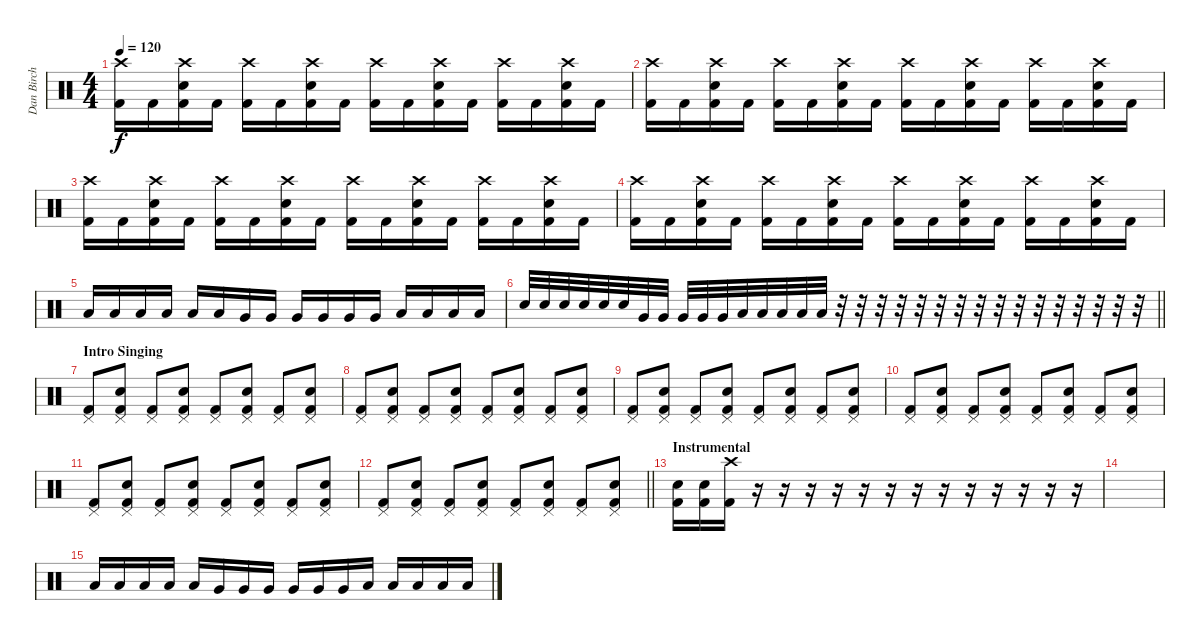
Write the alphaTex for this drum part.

\track ("Dan Birch" "Dan Birch") {instrument percussion}
\staff {score}
\articulation defaults
\ts (4 4)
\tempo 120
\clef neutral
\ks c
("Crash high (hit)" "Kick (hit) 2").16{dy f} "Kick (hit) 2".16 ("Crash high (hit)" "Kick (hit) 2" "Snare (hit) 2").16 "Kick (hit) 2".16 ("Crash high (hit)" "Kick (hit) 2").16 "Kick (hit) 2".16 ("Crash high (hit)" "Kick (hit) 2" "Snare (hit) 2").16 "Kick (hit) 2".16 ("Crash high (hit)" "Kick (hit) 2").16 "Kick (hit) 2".16 ("Crash high (hit)" "Kick (hit) 2" "Snare (hit) 2").16 "Kick (hit) 2".16 ("Crash high (hit)" "Kick (hit) 2").16 "Kick (hit) 2".16 ("Crash high (hit)" "Kick (hit) 2" "Snare (hit) 2").16 "Kick (hit) 2".16 |
("Crash high (hit)" "Kick (hit) 2").16 "Kick (hit) 2".16 ("Crash high (hit)" "Kick (hit) 2" "Snare (hit) 2").16 "Kick (hit) 2".16 ("Crash high (hit)" "Kick (hit) 2").16 "Kick (hit) 2".16 ("Crash high (hit)" "Kick (hit) 2" "Snare (hit) 2").16 "Kick (hit) 2".16 ("Crash high (hit)" "Kick (hit) 2").16 "Kick (hit) 2".16 ("Crash high (hit)" "Kick (hit) 2" "Snare (hit) 2").16 "Kick (hit) 2".16 ("Crash high (hit)" "Kick (hit) 2").16 "Kick (hit) 2".16 ("Crash high (hit)" "Kick (hit) 2" "Snare (hit) 2").16 "Kick (hit) 2".16 |
("Crash high (hit)" "Kick (hit) 2").16 "Kick (hit) 2".16 ("Crash high (hit)" "Kick (hit) 2" "Snare (hit) 2").16 "Kick (hit) 2".16 ("Crash high (hit)" "Kick (hit) 2").16 "Kick (hit) 2".16 ("Crash high (hit)" "Kick (hit) 2" "Snare (hit) 2").16 "Kick (hit) 2".16 ("Crash high (hit)" "Kick (hit) 2").16 "Kick (hit) 2".16 ("Crash high (hit)" "Kick (hit) 2" "Snare (hit) 2").16 "Kick (hit) 2".16 ("Crash high (hit)" "Kick (hit) 2").16 "Kick (hit) 2".16 ("Crash high (hit)" "Kick (hit) 2" "Snare (hit) 2").16 "Kick (hit) 2".16 |
("Crash high (hit)" "Kick (hit) 2").16 "Kick (hit) 2".16 ("Crash high (hit)" "Kick (hit) 2" "Snare (hit) 2").16 "Kick (hit) 2".16 ("Crash high (hit)" "Kick (hit) 2").16 "Kick (hit) 2".16 ("Crash high (hit)" "Kick (hit) 2" "Snare (hit) 2").16 "Kick (hit) 2".16 ("Crash high (hit)" "Kick (hit) 2").16 "Kick (hit) 2".16 ("Crash high (hit)" "Kick (hit) 2" "Snare (hit) 2").16 "Kick (hit) 2".16 ("Crash high (hit)" "Kick (hit) 2").16 "Kick (hit) 2".16 ("Crash high (hit)" "Kick (hit) 2" "Snare (hit) 2").16 "Kick (hit) 2".16 |
"Low Tom (hit)".16 "Low Tom (hit)".16 "Low Tom (hit)".16 "Low Tom (hit)".16 "Low Tom (hit)".16 "Low Tom (hit)".16 "Very Low Tom (hit)".16 "Very Low Tom (hit)".16 "Very Low Tom (hit)".16 "Very Low Tom (hit)".16 "Very Low Tom (hit)".16 "Very Low Tom (hit)".16 "Low Floor Tom (hit)".16 "Low Floor Tom (hit)".16 "Low Floor Tom (hit)".16 "Low Floor Tom (hit)".16 |
\barLineRight lightlight "Snare (hit) 2".32 "Snare (hit) 2".32 "Snare (hit) 2".32 "Snare (hit) 2".32 "Snare (hit) 2".32 "Snare (hit) 2".32 "Very Low Tom (hit)".32 "Very Low Tom (hit)".32 "Very Low Tom (hit)".32 "Very Low Tom (hit)".32 "Very Low Tom (hit)".32 "Low Tom (hit)".32 "Low Tom (hit)".32 "Low Tom (hit)".32 "Low Tom (hit)".32 "Low Tom (hit)".32
r.32 r.32 r.32 r.32 r.32 r.32 r.32 r.32 r.32 r.32 r.32 r.32 r.32 r.32 r.32 r.32 |
\section ("" "Intro Singing")
("Pedal Hi-Hat (hit)" "Kick (hit) 2").8 ("Pedal Hi-Hat (hit)" "Snare (hit) 2" "Kick (hit) 2").8 ("Pedal Hi-Hat (hit)" "Kick (hit) 2").8 ("Pedal Hi-Hat (hit)" "Snare (hit) 2" "Kick (hit) 2").8 ("Pedal Hi-Hat (hit)" "Kick (hit) 2").8 ("Pedal Hi-Hat (hit)" "Snare (hit) 2" "Kick (hit) 2").8 ("Pedal Hi-Hat (hit)" "Kick (hit) 2").8 ("Pedal Hi-Hat (hit)" "Snare (hit) 2" "Kick (hit) 2").8 |
("Pedal Hi-Hat (hit)" "Kick (hit) 2").8 ("Pedal Hi-Hat (hit)" "Snare (hit) 2" "Kick (hit) 2").8 ("Pedal Hi-Hat (hit)" "Kick (hit) 2").8 ("Pedal Hi-Hat (hit)" "Snare (hit) 2" "Kick (hit) 2").8 ("Pedal Hi-Hat (hit)" "Kick (hit) 2").8 ("Pedal Hi-Hat (hit)" "Snare (hit) 2" "Kick (hit) 2").8 ("Pedal Hi-Hat (hit)" "Kick (hit) 2").8 ("Pedal Hi-Hat (hit)" "Snare (hit) 2" "Kick (hit) 2").8 |
("Pedal Hi-Hat (hit)" "Kick (hit) 2").8 ("Pedal Hi-Hat (hit)" "Snare (hit) 2" "Kick (hit) 2").8 ("Pedal Hi-Hat (hit)" "Kick (hit) 2").8 ("Pedal Hi-Hat (hit)" "Snare (hit) 2" "Kick (hit) 2").8 ("Pedal Hi-Hat (hit)" "Kick (hit) 2").8 ("Pedal Hi-Hat (hit)" "Snare (hit) 2" "Kick (hit) 2").8 ("Pedal Hi-Hat (hit)" "Kick (hit) 2").8 ("Pedal Hi-Hat (hit)" "Snare (hit) 2" "Kick (hit) 2").8 |
("Pedal Hi-Hat (hit)" "Kick (hit) 2").8 ("Pedal Hi-Hat (hit)" "Snare (hit) 2" "Kick (hit) 2").8 ("Pedal Hi-Hat (hit)" "Kick (hit) 2").8 ("Pedal Hi-Hat (hit)" "Snare (hit) 2" "Kick (hit) 2").8 ("Pedal Hi-Hat (hit)" "Kick (hit) 2").8 ("Pedal Hi-Hat (hit)" "Snare (hit) 2" "Kick (hit) 2").8 ("Pedal Hi-Hat (hit)" "Kick (hit) 2").8 ("Pedal Hi-Hat (hit)" "Snare (hit) 2" "Kick (hit) 2").8 |
("Pedal Hi-Hat (hit)" "Kick (hit) 2").8 ("Pedal Hi-Hat (hit)" "Snare (hit) 2" "Kick (hit) 2").8 ("Pedal Hi-Hat (hit)" "Kick (hit) 2").8 ("Pedal Hi-Hat (hit)" "Snare (hit) 2" "Kick (hit) 2").8 ("Pedal Hi-Hat (hit)" "Kick (hit) 2").8 ("Pedal Hi-Hat (hit)" "Snare (hit) 2" "Kick (hit) 2").8 ("Pedal Hi-Hat (hit)" "Kick (hit) 2").8 ("Pedal Hi-Hat (hit)" "Snare (hit) 2" "Kick (hit) 2").8 |
\barLineRight lightlight
("Pedal Hi-Hat (hit)" "Kick (hit) 2").8 ("Pedal Hi-Hat (hit)" "Snare (hit) 2" "Kick (hit) 2").8 ("Pedal Hi-Hat (hit)" "Kick (hit) 2").8 ("Pedal Hi-Hat (hit)" "Snare (hit) 2" "Kick (hit) 2").8 ("Pedal Hi-Hat (hit)" "Kick (hit) 2").8 ("Pedal Hi-Hat (hit)" "Snare (hit) 2" "Kick (hit) 2").8 ("Pedal Hi-Hat (hit)" "Kick (hit) 2").8 ("Pedal Hi-Hat (hit)" "Snare (hit) 2" "Kick (hit) 2").8 |
\section ("" "Instrumental")
("Snare (hit) 2" "Kick (hit) 2").16 ("Snare (hit) 2" "Kick (hit) 2").16 ("Crash high (hit)" "Kick (hit) 2").16 r.16 r.16 r.16 r.16 r.16 r.16 r.16 r.16 r.16 r.16 r.16 r.16 r.16 |
|
"Low Tom (hit)".16 "Low Tom (hit)".16 "Low Tom (hit)".16 "Low Tom (hit)".16 "Low Tom (hit)".16 "Very Low Tom (hit)".16 "Very Low Tom (hit)".16 "Very Low Tom (hit)".16 "Very Low Tom (hit)".16 "Very Low Tom (hit)".16 "Very Low Tom (hit)".16 "Low Floor Tom (hit)".16 "Low Floor Tom (hit)".16 "Low Floor Tom (hit)".16 "Low Floor Tom (hit)".16 "Low Floor Tom (hit)".16
